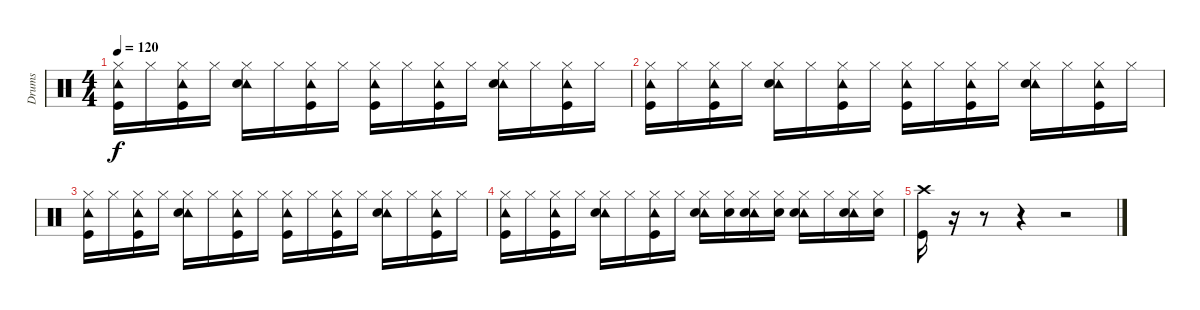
\track ("Drums" "Drums") {instrument percussion}
\staff {score}
\articulation defaults
\ts (4 4)
\tempo 120
\clef neutral
\ks c
("Hi-Hat (closed)" "Tambourine (hit)" "Kick (hit)").16{dy f} "Hi-Hat (closed)".16 ("Hi-Hat (closed)" "Tambourine (hit)" "Kick (hit)").16 "Hi-Hat (closed)".16 ("Hi-Hat (closed)" "Tambourine (hit)" "Snare (hit) 2").16 "Hi-Hat (closed)".16 ("Hi-Hat (closed)" "Tambourine (hit)" "Kick (hit)").16 "Hi-Hat (closed)".16 ("Hi-Hat (closed)" "Tambourine (hit)" "Kick (hit)").16 "Hi-Hat (closed)".16 ("Hi-Hat (closed)" "Tambourine (hit)" "Kick (hit)").16 "Hi-Hat (closed)".16 ("Hi-Hat (closed)" "Tambourine (hit)" "Snare (hit) 2").16 "Hi-Hat (closed)".16 ("Hi-Hat (closed)" "Tambourine (hit)" "Kick (hit)").16 "Hi-Hat (closed)".16 |
("Hi-Hat (closed)" "Tambourine (hit)" "Kick (hit)").16 "Hi-Hat (closed)".16 ("Hi-Hat (closed)" "Tambourine (hit)" "Kick (hit)").16 "Hi-Hat (closed)".16 ("Hi-Hat (closed)" "Tambourine (hit)" "Snare (hit) 2").16 "Hi-Hat (closed)".16 ("Hi-Hat (closed)" "Tambourine (hit)" "Kick (hit)").16 "Hi-Hat (closed)".16 ("Hi-Hat (closed)" "Tambourine (hit)" "Kick (hit)").16 "Hi-Hat (closed)".16 ("Hi-Hat (closed)" "Tambourine (hit)" "Kick (hit)").16 "Hi-Hat (closed)".16 ("Hi-Hat (closed)" "Tambourine (hit)" "Snare (hit) 2").16 "Hi-Hat (closed)".16 ("Hi-Hat (closed)" "Tambourine (hit)" "Kick (hit)").16 "Hi-Hat (closed)".16 |
("Hi-Hat (closed)" "Tambourine (hit)" "Kick (hit)").16 "Hi-Hat (closed)".16 ("Hi-Hat (closed)" "Tambourine (hit)" "Kick (hit)").16 "Hi-Hat (closed)".16 ("Hi-Hat (closed)" "Tambourine (hit)" "Snare (hit) 2").16 "Hi-Hat (closed)".16 ("Hi-Hat (closed)" "Tambourine (hit)" "Kick (hit)").16 "Hi-Hat (closed)".16 ("Hi-Hat (closed)" "Tambourine (hit)" "Kick (hit)").16 "Hi-Hat (closed)".16 ("Hi-Hat (closed)" "Tambourine (hit)" "Kick (hit)").16 "Hi-Hat (closed)".16 ("Hi-Hat (closed)" "Tambourine (hit)" "Snare (hit) 2").16 "Hi-Hat (closed)".16 ("Hi-Hat (closed)" "Tambourine (hit)" "Kick (hit)").16 "Hi-Hat (closed)".16 |
("Hi-Hat (closed)" "Tambourine (hit)" "Kick (hit)").16 "Hi-Hat (closed)".16 ("Hi-Hat (closed)" "Tambourine (hit)" "Kick (hit)").16 "Hi-Hat (closed)".16 ("Hi-Hat (closed)" "Tambourine (hit)" "Snare (hit) 2").16 "Hi-Hat (closed)".16 ("Hi-Hat (closed)" "Tambourine (hit)" "Kick (hit)").16 "Hi-Hat (closed)".16 ("Hi-Hat (closed)" "Tambourine (hit)" "Snare (hit) 2").16 ("Hi-Hat (closed)" "Snare (hit) 2").16 ("Hi-Hat (closed)" "Tambourine (hit)" "Snare (hit) 2").16 ("Hi-Hat (closed)" "Snare (hit) 2").16 ("Hi-Hat (closed)" "Tambourine (hit)" "Snare (hit) 2").16 "Hi-Hat (closed)".16 ("Hi-Hat (closed)" "Tambourine (hit)" "Snare (hit) 2").16 ("Hi-Hat (closed)" "Snare (hit) 2").16 |
("Crash high (hit)" "Kick (hit)").16 r.16 r.8 r.4 r.2
